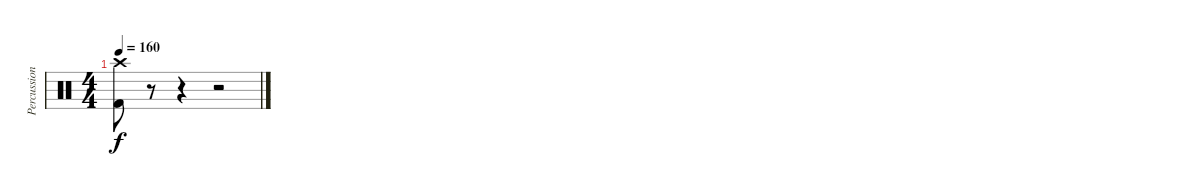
\track ("Percussions" "Percussion") {instrument percussion}
\staff {score}
\articulation defaults
\ts (4 4)
\tempo 160
\clef neutral
\ks c
("Kick (hit) 2" "Crash high (hit)").8{dy f} r.8 r.4 r.2
